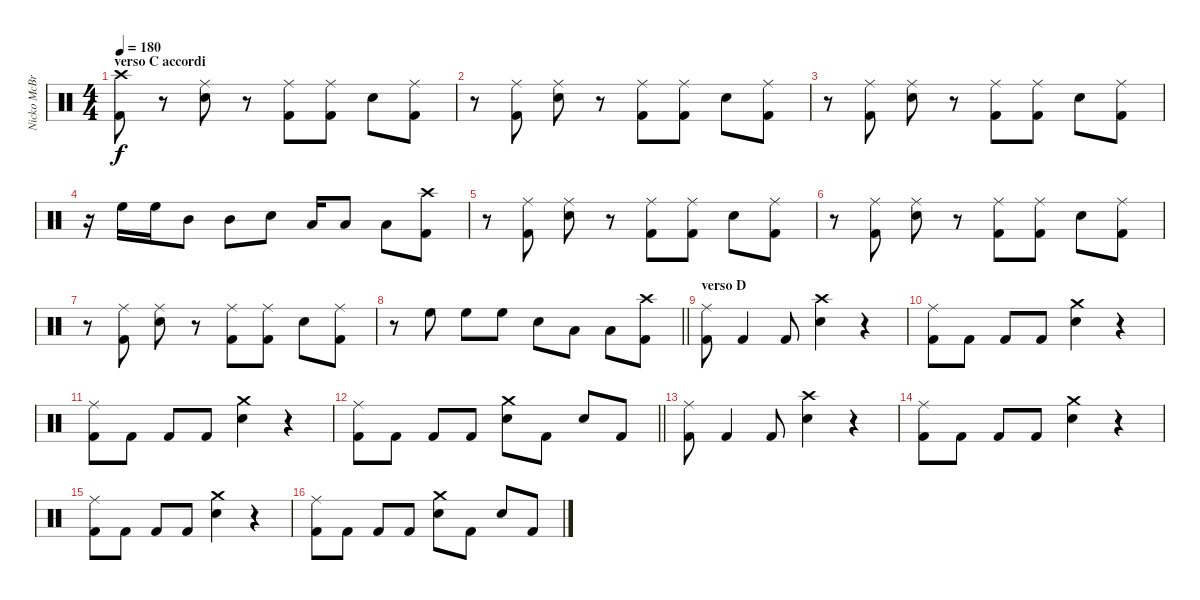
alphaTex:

\track ("Nicko McBrain" "Nicko McBr") {instrument percussion}
\staff {score}
\articulation defaults
\ts (4 4)
\section ("" "verso C accordi")
\tempo 180
\clef neutral
\ks c
("Crash high (hit)" "Kick (hit) 2").8{dy f} r.8 ("Ride (middle)" "Snare (hit) 2").8 r.8 ("Ride (middle)" "Kick (hit) 2").8 ("Ride (middle)" "Kick (hit) 2").8 "Snare (hit) 2".8 ("Ride (middle)" "Kick (hit) 2").8 |
r.8 ("Ride (middle)" "Kick (hit) 2").8 ("Ride (middle)" "Snare (hit) 2").8 r.8 ("Ride (middle)" "Kick (hit) 2").8 ("Ride (middle)" "Kick (hit) 2").8 "Snare (hit) 2".8 ("Ride (middle)" "Kick (hit) 2").8 |
r.8 ("Ride (middle)" "Kick (hit) 2").8 ("Ride (middle)" "Snare (hit) 2").8 r.8 ("Ride (middle)" "Kick (hit) 2").8 ("Ride (middle)" "Kick (hit) 2").8 "Snare (hit) 2".8 ("Ride (middle)" "Kick (hit) 2").8 |
r.16 "High Floor Tom (hit)".16 "High Floor Tom (hit)".16 "Mid Tom (hit)".8 "Mid Tom (hit)".8 "Snare (hit) 2".8 "Low Tom (hit)".16 "Low Tom (hit)".8 "Low Floor Tom (hit)".8 ("Crash high (hit)" "Kick (hit) 2").8 |
r.8 ("Ride (middle)" "Kick (hit) 2").8 ("Ride (middle)" "Snare (hit) 2").8 r.8 ("Ride (middle)" "Kick (hit) 2").8 ("Ride (middle)" "Kick (hit) 2").8 "Snare (hit) 2".8 ("Ride (middle)" "Kick (hit) 2").8 |
r.8 ("Ride (middle)" "Kick (hit) 2").8 ("Ride (middle)" "Snare (hit) 2").8 r.8 ("Ride (middle)" "Kick (hit) 2").8 ("Ride (middle)" "Kick (hit) 2").8 "Snare (hit) 2".8 ("Ride (middle)" "Kick (hit) 2").8 |
r.8 ("Ride (middle)" "Kick (hit) 2").8 ("Ride (middle)" "Snare (hit) 2").8 r.8 ("Ride (middle)" "Kick (hit) 2").8 ("Ride (middle)" "Kick (hit) 2").8 "Snare (hit) 2".8 ("Ride (middle)" "Kick (hit) 2").8 |
\barLineRight lightlight
r.8 "High Floor Tom (hit)".8 "High Floor Tom (hit)".8 "High Floor Tom (hit)".8 "Snare (hit) 2".8 "Low Tom (hit)".8 "Low Floor Tom (hit)".8 ("Crash high (hit)" "Kick (hit) 2").8 |
\section ("" "verso D")
("Ride (middle)" "Kick (hit) 2").8 "Kick (hit) 2".4 "Kick (hit) 2".8 ("Crash high (hit)" "Snare (hit) 2").4 r.4 |
("Ride (middle)" "Kick (hit) 2").8 "Kick (hit) 2".8 "Kick (hit) 2".8 "Kick (hit) 2".8 ("Crash medium (hit)" "Snare (hit) 2").4 r.4 |
("Ride (middle)" "Kick (hit) 2").8 "Kick (hit) 2".8 "Kick (hit) 2".8 "Kick (hit) 2".8 ("Crash medium (hit)" "Snare (hit) 2").4 r.4 |
\barLineRight lightlight
("Ride (middle)" "Kick (hit) 2").8 "Kick (hit) 2".8 "Kick (hit) 2".8 "Kick (hit) 2".8 ("Crash medium (hit)" "Snare (hit) 2").8 "Kick (hit) 2".8 "Snare (hit) 2".8 "Kick (hit) 2".8 |
\section ("" "")
("Ride (middle)" "Kick (hit) 2").8 "Kick (hit) 2".4 "Kick (hit) 2".8 ("Crash high (hit)" "Snare (hit) 2").4 r.4 |
("Ride (middle)" "Kick (hit) 2").8 "Kick (hit) 2".8 "Kick (hit) 2".8 "Kick (hit) 2".8 ("Crash medium (hit)" "Snare (hit) 2").4 r.4 |
("Ride (middle)" "Kick (hit) 2").8 "Kick (hit) 2".8 "Kick (hit) 2".8 "Kick (hit) 2".8 ("Crash medium (hit)" "Snare (hit) 2").4 r.4 |
("Ride (middle)" "Kick (hit) 2").8 "Kick (hit) 2".8 "Kick (hit) 2".8 "Kick (hit) 2".8 ("Crash medium (hit)" "Snare (hit) 2").8 "Kick (hit) 2".8 "Snare (hit) 2".8 "Kick (hit) 2".8
